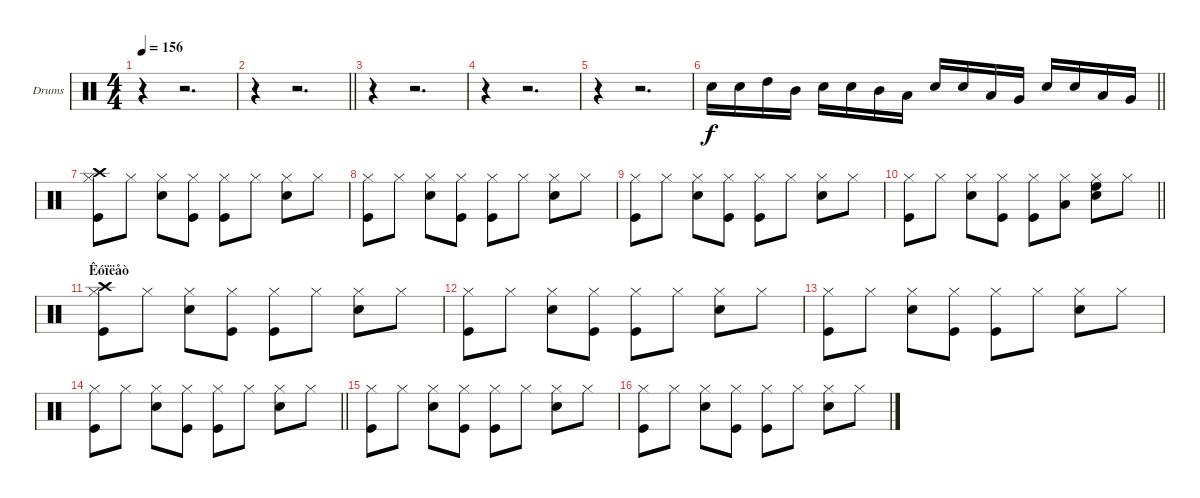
\bracketExtendMode groupsimilarinstruments
\firstSystemTrackNameOrientation horizontal
\otherSystemsTrackNameOrientation horizontal
\track ("Drumkit" "Drums") {instrument percussion}
\staff {score}
\articulation defaults
\ts (4 4)
\tempo 156
\clef neutral
\ks c
r.4{dy f} r.2{d} |
\barLineRight lightlight
r.4 r.2{d} |
r.4 r.2{d} |
r.4 r.2{d} |
r.4 r.2{d} |
\barLineRight lightlight "Snare (hit) 2".16 "Snare (hit) 2".16 "High Tom (hit)".16 "Mid Tom (hit)".16 "Snare (hit) 2".16 "Snare (hit) 2".16 "Mid Tom (hit)".16 "Low Tom (hit)".16 "Snare (hit) 2".16 "Snare (hit) 2".16 "Low Tom (hit)".16 "Very Low Tom (hit)".16 "Snare (hit) 2".16 "Snare (hit) 2".16 "Low Tom (hit)".16 "Very Low Tom (hit)".16
|
("Hi-Hat (closed)" "Kick (hit)" "Crash high (hit)").8 "Hi-Hat (closed)".8 ("Hi-Hat (closed)" "Snare (hit) 2").8 ("Hi-Hat (closed)" "Kick (hit)").8 ("Hi-Hat (closed)" "Kick (hit)").8 "Hi-Hat (closed)".8 ("Hi-Hat (closed)" "Snare (hit) 2").8 "Hi-Hat (closed)".8 |
("Hi-Hat (closed)" "Kick (hit)").8 "Hi-Hat (closed)".8 ("Hi-Hat (closed)" "Snare (hit) 2").8 ("Hi-Hat (closed)" "Kick (hit)").8 ("Hi-Hat (closed)" "Kick (hit)").8 "Hi-Hat (closed)".8 ("Hi-Hat (closed)" "Snare (hit) 2").8 "Hi-Hat (closed)".8 |
("Hi-Hat (closed)" "Kick (hit)").8 "Hi-Hat (closed)".8 ("Hi-Hat (closed)" "Snare (hit) 2").8 ("Hi-Hat (closed)" "Kick (hit)").8 ("Hi-Hat (closed)" "Kick (hit)").8 "Hi-Hat (closed)".8 ("Hi-Hat (closed)" "Snare (hit) 2").8 "Hi-Hat (closed)".8 |
\barLineRight lightlight
("Hi-Hat (closed)" "Kick (hit)").8 "Hi-Hat (closed)".8 ("Hi-Hat (closed)" "Snare (hit) 2").8 ("Hi-Hat (closed)" "Kick (hit)").8 ("Hi-Hat (closed)" "Kick (hit)").8 ("Hi-Hat (closed)" "Low Tom (hit)").8 ("Hi-Hat (closed)" "Snare (hit) 2" "High Floor Tom (hit)").8 "Hi-Hat (closed)".8 |
\section ("" "Êóïëåò")
("Hi-Hat (closed)" "Kick (hit)" "Crash high (hit)").8 "Hi-Hat (closed)".8 ("Hi-Hat (closed)" "Snare (hit) 2").8 ("Hi-Hat (closed)" "Kick (hit)").8 ("Hi-Hat (closed)" "Kick (hit)").8 "Hi-Hat (closed)".8 ("Hi-Hat (closed)" "Snare (hit) 2").8 "Hi-Hat (closed)".8 |
("Hi-Hat (closed)" "Kick (hit)").8 "Hi-Hat (closed)".8 ("Hi-Hat (closed)" "Snare (hit) 2").8 ("Hi-Hat (closed)" "Kick (hit)").8 ("Hi-Hat (closed)" "Kick (hit)").8 "Hi-Hat (closed)".8 ("Hi-Hat (closed)" "Snare (hit) 2").8 "Hi-Hat (closed)".8 |
("Hi-Hat (closed)" "Kick (hit)").8 "Hi-Hat (closed)".8 ("Hi-Hat (closed)" "Snare (hit) 2").8 ("Hi-Hat (closed)" "Kick (hit)").8 ("Hi-Hat (closed)" "Kick (hit)").8 "Hi-Hat (closed)".8 ("Hi-Hat (closed)" "Snare (hit) 2").8 "Hi-Hat (closed)".8 |
\barLineRight lightlight
("Hi-Hat (closed)" "Kick (hit)").8 "Hi-Hat (closed)".8 ("Hi-Hat (closed)" "Snare (hit) 2").8 ("Hi-Hat (closed)" "Kick (hit)").8 ("Hi-Hat (closed)" "Kick (hit)").8 "Hi-Hat (closed)".8 ("Hi-Hat (closed)" "Snare (hit) 2").8 "Hi-Hat (closed)".8 |
("Hi-Hat (closed)" "Kick (hit)").8 "Hi-Hat (closed)".8 ("Hi-Hat (closed)" "Snare (hit) 2").8 ("Hi-Hat (closed)" "Kick (hit)").8 ("Hi-Hat (closed)" "Kick (hit)").8 "Hi-Hat (closed)".8 ("Hi-Hat (closed)" "Snare (hit) 2").8 "Hi-Hat (closed)".8 |
("Hi-Hat (closed)" "Kick (hit)").8 "Hi-Hat (closed)".8 ("Hi-Hat (closed)" "Snare (hit) 2").8 ("Hi-Hat (closed)" "Kick (hit)").8 ("Hi-Hat (closed)" "Kick (hit)").8 "Hi-Hat (closed)".8 ("Hi-Hat (closed)" "Snare (hit) 2").8 "Hi-Hat (closed)".8
